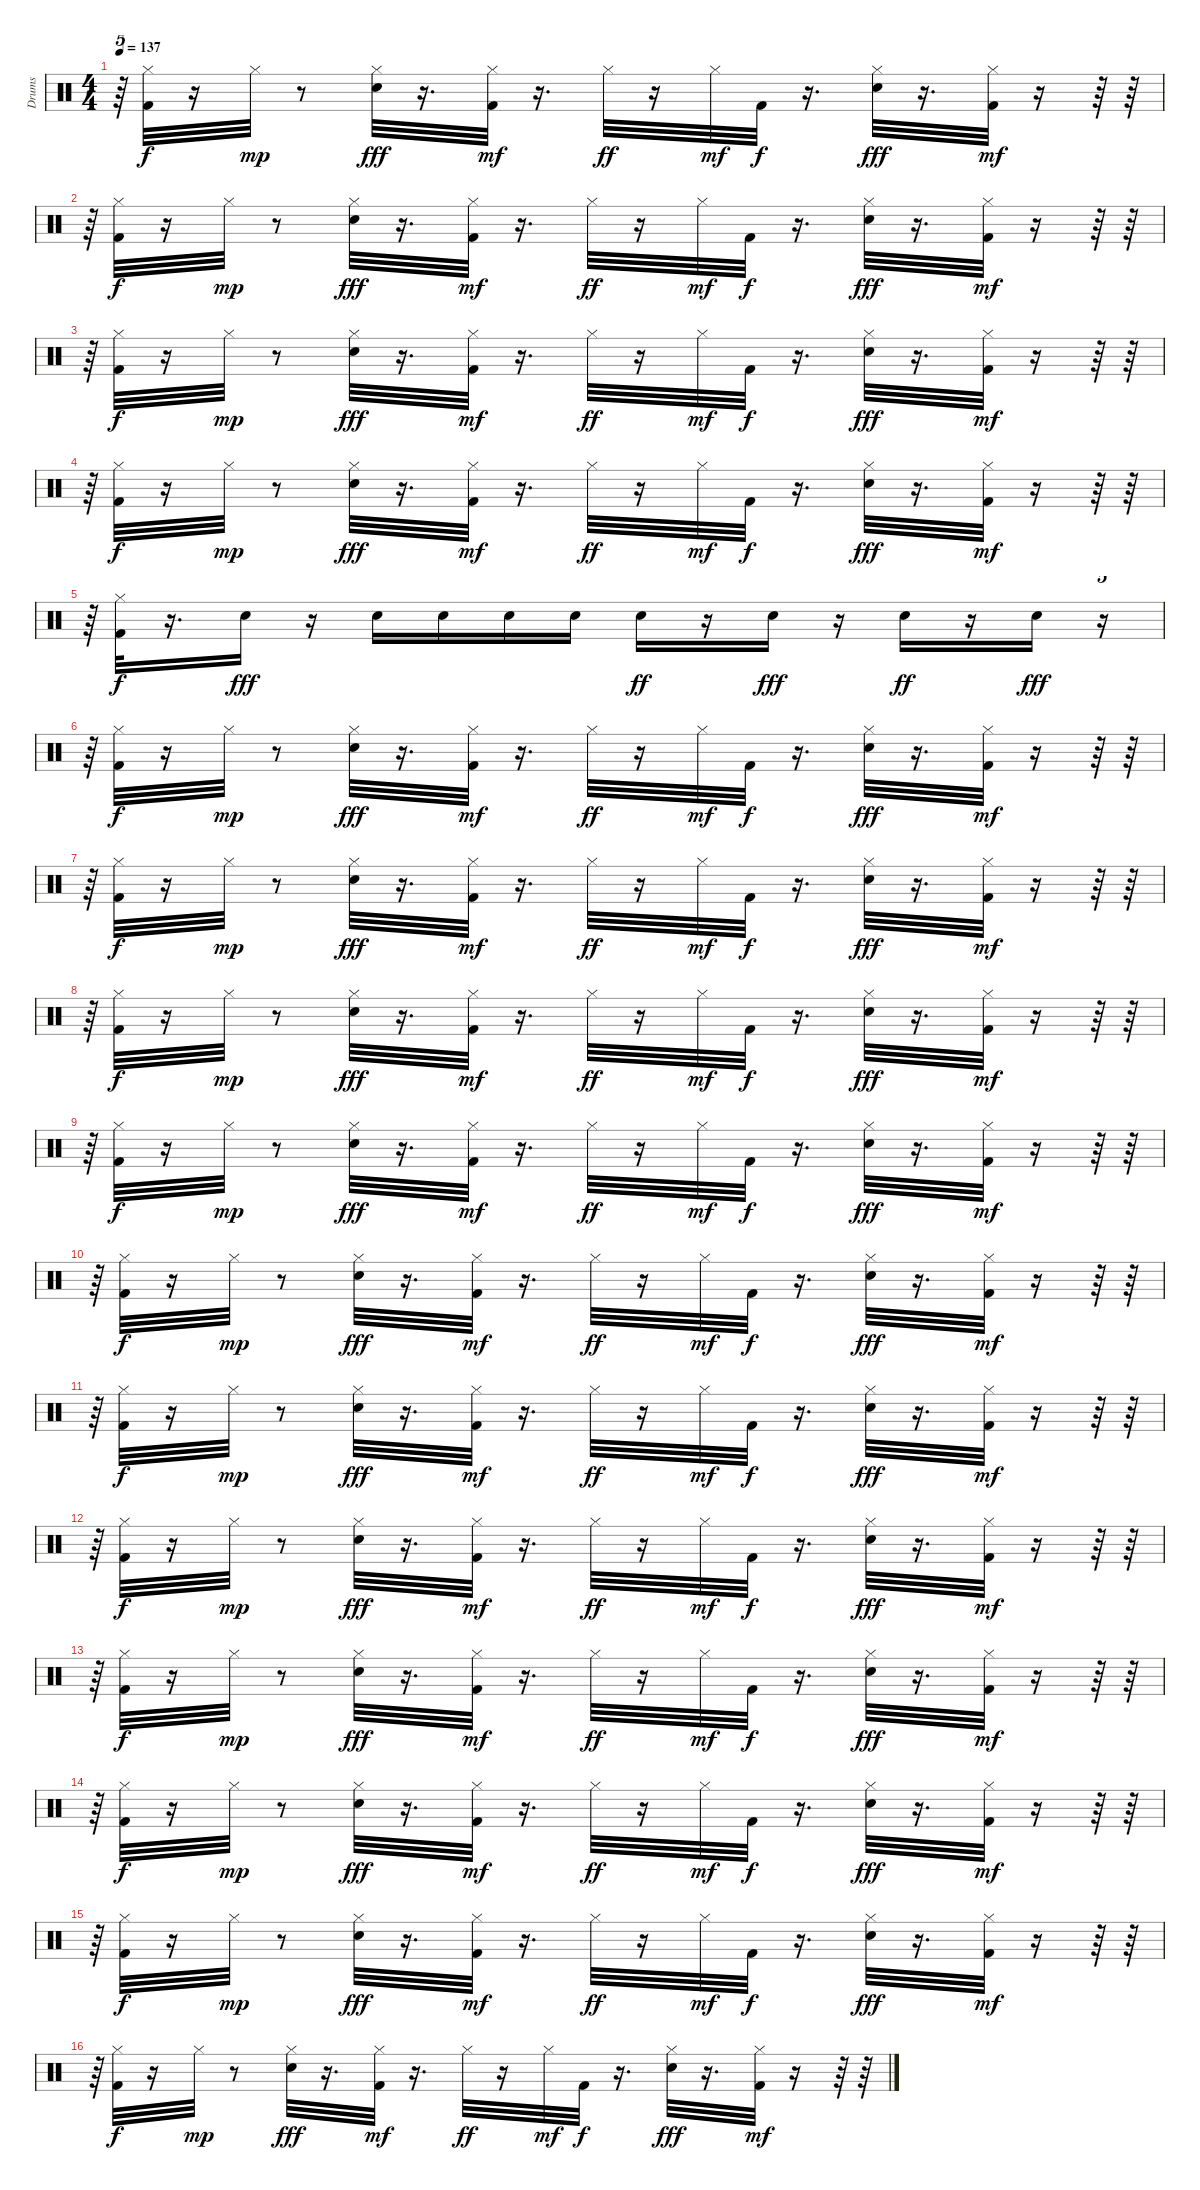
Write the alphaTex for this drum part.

\track ("Drums" "Drums") {instrument percussion}
\staff {score}
\articulation defaults
\ts (4 4)
\tempo 137
\clef neutral
\ks c
r.64{tu (5 4) dy mf} ("Hi-Hat (closed)" "Kick (hit) 2").32{dy f} r.16 "Hi-Hat (closed)".32{dy mp} r.8 ("Hi-Hat (closed)" "Snare (hit) 2").32{dy fff} r.16{d} ("Hi-Hat (closed)" "Kick (hit) 2").32{dy mf} r.16{d} "Hi-Hat (closed)".32{dy ff} r.16 "Hi-Hat (closed)".32{dy mf} "Kick (hit) 2".32{dy f} r.16{d} ("Hi-Hat (closed)" "Snare (hit) 2").32{dy fff} r.16{d} ("Hi-Hat (closed)" "Kick (hit) 2").32{dy mf} r.16 r.64 r.64 |
r.64{tu (5 4)} ("Hi-Hat (closed)" "Kick (hit) 2").32{dy f} r.16 "Hi-Hat (closed)".32{dy mp} r.8 ("Hi-Hat (closed)" "Snare (hit) 2").32{dy fff} r.16{d} ("Hi-Hat (closed)" "Kick (hit) 2").32{dy mf} r.16{d} "Hi-Hat (closed)".32{dy ff} r.16 "Hi-Hat (closed)".32{dy mf} "Kick (hit) 2".32{dy f} r.16{d} ("Hi-Hat (closed)" "Snare (hit) 2").32{dy fff} r.16{d} ("Hi-Hat (closed)" "Kick (hit) 2").32{dy mf} r.16 r.64 r.64 |
r.64{tu (5 4)} ("Hi-Hat (closed)" "Kick (hit) 2").32{dy f} r.16 "Hi-Hat (closed)".32{dy mp} r.8 ("Hi-Hat (closed)" "Snare (hit) 2").32{dy fff} r.16{d} ("Hi-Hat (closed)" "Kick (hit) 2").32{dy mf} r.16{d} "Hi-Hat (closed)".32{dy ff} r.16 "Hi-Hat (closed)".32{dy mf} "Kick (hit) 2".32{dy f} r.16{d} ("Hi-Hat (closed)" "Snare (hit) 2").32{dy fff} r.16{d} ("Hi-Hat (closed)" "Kick (hit) 2").32{dy mf} r.16 r.64 r.64 |
r.64{tu (5 4)} ("Hi-Hat (closed)" "Kick (hit) 2").32{dy f} r.16 "Hi-Hat (closed)".32{dy mp} r.8 ("Hi-Hat (closed)" "Snare (hit) 2").32{dy fff} r.16{d} ("Hi-Hat (closed)" "Kick (hit) 2").32{dy mf} r.16{d} "Hi-Hat (closed)".32{dy ff} r.16 "Hi-Hat (closed)".32{dy mf} "Kick (hit) 2".32{dy f} r.16{d} ("Hi-Hat (closed)" "Snare (hit) 2").32{dy fff} r.16{d} ("Hi-Hat (closed)" "Kick (hit) 2").32{dy mf} r.16 r.64 r.64 |
r.64{tu (5 4)} ("Hi-Hat (closed)" "Kick (hit) 2").32{dy f} r.16{d} "Snare (hit) 2".16{dy fff} r.16 "Snare (hit) 2".16 "Snare (hit) 2".16 "Snare (hit) 2".16 "Snare (hit) 2".16 "Electric Snare (hit)".16{dy ff} r.16 "Electric Snare (hit)".16{dy fff} r.16 "Snare (hit) 2".16{dy ff} r.16 "Snare (hit) 2".16{dy fff} r.16{tu (5 4)} |
r.64{tu (5 4)} ("Hi-Hat (closed)" "Kick (hit) 2").32{dy f} r.16 "Hi-Hat (closed)".32{dy mp} r.8 ("Hi-Hat (closed)" "Snare (hit) 2").32{dy fff} r.16{d} ("Hi-Hat (closed)" "Kick (hit) 2").32{dy mf} r.16{d} "Hi-Hat (closed)".32{dy ff} r.16 "Hi-Hat (closed)".32{dy mf} "Kick (hit) 2".32{dy f} r.16{d} ("Hi-Hat (closed)" "Snare (hit) 2").32{dy fff} r.16{d} ("Hi-Hat (closed)" "Kick (hit) 2").32{dy mf} r.16 r.64 r.64 |
r.64{tu (5 4)} ("Hi-Hat (closed)" "Kick (hit) 2").32{dy f} r.16 "Hi-Hat (closed)".32{dy mp} r.8 ("Hi-Hat (closed)" "Snare (hit) 2").32{dy fff} r.16{d} ("Hi-Hat (closed)" "Kick (hit) 2").32{dy mf} r.16{d} "Hi-Hat (closed)".32{dy ff} r.16 "Hi-Hat (closed)".32{dy mf} "Kick (hit) 2".32{dy f} r.16{d} ("Hi-Hat (closed)" "Snare (hit) 2").32{dy fff} r.16{d} ("Hi-Hat (closed)" "Kick (hit) 2").32{dy mf} r.16 r.64 r.64 |
r.64{tu (5 4)} ("Hi-Hat (closed)" "Kick (hit) 2").32{dy f} r.16 "Hi-Hat (closed)".32{dy mp} r.8 ("Hi-Hat (closed)" "Snare (hit) 2").32{dy fff} r.16{d} ("Hi-Hat (closed)" "Kick (hit) 2").32{dy mf} r.16{d} "Hi-Hat (closed)".32{dy ff} r.16 "Hi-Hat (closed)".32{dy mf} "Kick (hit) 2".32{dy f} r.16{d} ("Hi-Hat (closed)" "Snare (hit) 2").32{dy fff} r.16{d} ("Hi-Hat (closed)" "Kick (hit) 2").32{dy mf} r.16 r.64 r.64 |
r.64{tu (5 4)} ("Hi-Hat (closed)" "Kick (hit) 2").32{dy f} r.16 "Hi-Hat (closed)".32{dy mp} r.8 ("Hi-Hat (closed)" "Snare (hit) 2").32{dy fff} r.16{d} ("Hi-Hat (closed)" "Kick (hit) 2").32{dy mf} r.16{d} "Hi-Hat (closed)".32{dy ff} r.16 "Hi-Hat (closed)".32{dy mf} "Kick (hit) 2".32{dy f} r.16{d} ("Hi-Hat (closed)" "Snare (hit) 2").32{dy fff} r.16{d} ("Hi-Hat (closed)" "Kick (hit) 2").32{dy mf} r.16 r.64 r.64 |
r.64{tu (5 4)} ("Hi-Hat (closed)" "Kick (hit) 2").32{dy f} r.16 "Hi-Hat (closed)".32{dy mp} r.8 ("Hi-Hat (closed)" "Snare (hit) 2").32{dy fff} r.16{d} ("Hi-Hat (closed)" "Kick (hit) 2").32{dy mf} r.16{d} "Hi-Hat (closed)".32{dy ff} r.16 "Hi-Hat (closed)".32{dy mf} "Kick (hit) 2".32{dy f} r.16{d} ("Hi-Hat (closed)" "Snare (hit) 2").32{dy fff} r.16{d} ("Hi-Hat (closed)" "Kick (hit) 2").32{dy mf} r.16 r.64 r.64 |
r.64{tu (5 4)} ("Hi-Hat (closed)" "Kick (hit) 2").32{dy f} r.16 "Hi-Hat (closed)".32{dy mp} r.8 ("Hi-Hat (closed)" "Snare (hit) 2").32{dy fff} r.16{d} ("Hi-Hat (closed)" "Kick (hit) 2").32{dy mf} r.16{d} "Hi-Hat (closed)".32{dy ff} r.16 "Hi-Hat (closed)".32{dy mf} "Kick (hit) 2".32{dy f} r.16{d} ("Hi-Hat (closed)" "Snare (hit) 2").32{dy fff} r.16{d} ("Hi-Hat (closed)" "Kick (hit) 2").32{dy mf} r.16 r.64 r.64 |
r.64{tu (5 4)} ("Hi-Hat (closed)" "Kick (hit) 2").32{dy f} r.16 "Hi-Hat (closed)".32{dy mp} r.8 ("Hi-Hat (closed)" "Snare (hit) 2").32{dy fff} r.16{d} ("Hi-Hat (closed)" "Kick (hit) 2").32{dy mf} r.16{d} "Hi-Hat (closed)".32{dy ff} r.16 "Hi-Hat (closed)".32{dy mf} "Kick (hit) 2".32{dy f} r.16{d} ("Hi-Hat (closed)" "Snare (hit) 2").32{dy fff} r.16{d} ("Hi-Hat (closed)" "Kick (hit) 2").32{dy mf} r.16 r.64 r.64 |
r.64{tu (5 4)} ("Hi-Hat (closed)" "Kick (hit) 2").32{dy f} r.16 "Hi-Hat (closed)".32{dy mp} r.8 ("Hi-Hat (closed)" "Snare (hit) 2").32{dy fff} r.16{d} ("Hi-Hat (closed)" "Kick (hit) 2").32{dy mf} r.16{d} "Hi-Hat (closed)".32{dy ff} r.16 "Hi-Hat (closed)".32{dy mf} "Kick (hit) 2".32{dy f} r.16{d} ("Hi-Hat (closed)" "Snare (hit) 2").32{dy fff} r.16{d} ("Hi-Hat (closed)" "Kick (hit) 2").32{dy mf} r.16 r.64 r.64 |
r.64{tu (5 4)} ("Hi-Hat (closed)" "Kick (hit) 2").32{dy f} r.16 "Hi-Hat (closed)".32{dy mp} r.8 ("Hi-Hat (closed)" "Snare (hit) 2").32{dy fff} r.16{d} ("Hi-Hat (closed)" "Kick (hit) 2").32{dy mf} r.16{d} "Hi-Hat (closed)".32{dy ff} r.16 "Hi-Hat (closed)".32{dy mf} "Kick (hit) 2".32{dy f} r.16{d} ("Hi-Hat (closed)" "Snare (hit) 2").32{dy fff} r.16{d} ("Hi-Hat (closed)" "Kick (hit) 2").32{dy mf} r.16 r.64 r.64 |
r.64{tu (5 4)} ("Hi-Hat (closed)" "Kick (hit) 2").32{dy f} r.16 "Hi-Hat (closed)".32{dy mp} r.8 ("Hi-Hat (closed)" "Snare (hit) 2").32{dy fff} r.16{d} ("Hi-Hat (closed)" "Kick (hit) 2").32{dy mf} r.16{d} "Hi-Hat (closed)".32{dy ff} r.16 "Hi-Hat (closed)".32{dy mf} "Kick (hit) 2".32{dy f} r.16{d} ("Hi-Hat (closed)" "Snare (hit) 2").32{dy fff} r.16{d} ("Hi-Hat (closed)" "Kick (hit) 2").32{dy mf} r.16 r.64 r.64 |
r.64{tu (5 4)} ("Hi-Hat (closed)" "Kick (hit) 2").32{dy f} r.16 "Hi-Hat (closed)".32{dy mp} r.8 ("Hi-Hat (closed)" "Snare (hit) 2").32{dy fff} r.16{d} ("Hi-Hat (closed)" "Kick (hit) 2").32{dy mf} r.16{d} "Hi-Hat (closed)".32{dy ff} r.16 "Hi-Hat (closed)".32{dy mf} "Kick (hit) 2".32{dy f} r.16{d} ("Hi-Hat (closed)" "Snare (hit) 2").32{dy fff} r.16{d} ("Hi-Hat (closed)" "Kick (hit) 2").32{dy mf} r.16 r.64 r.64
